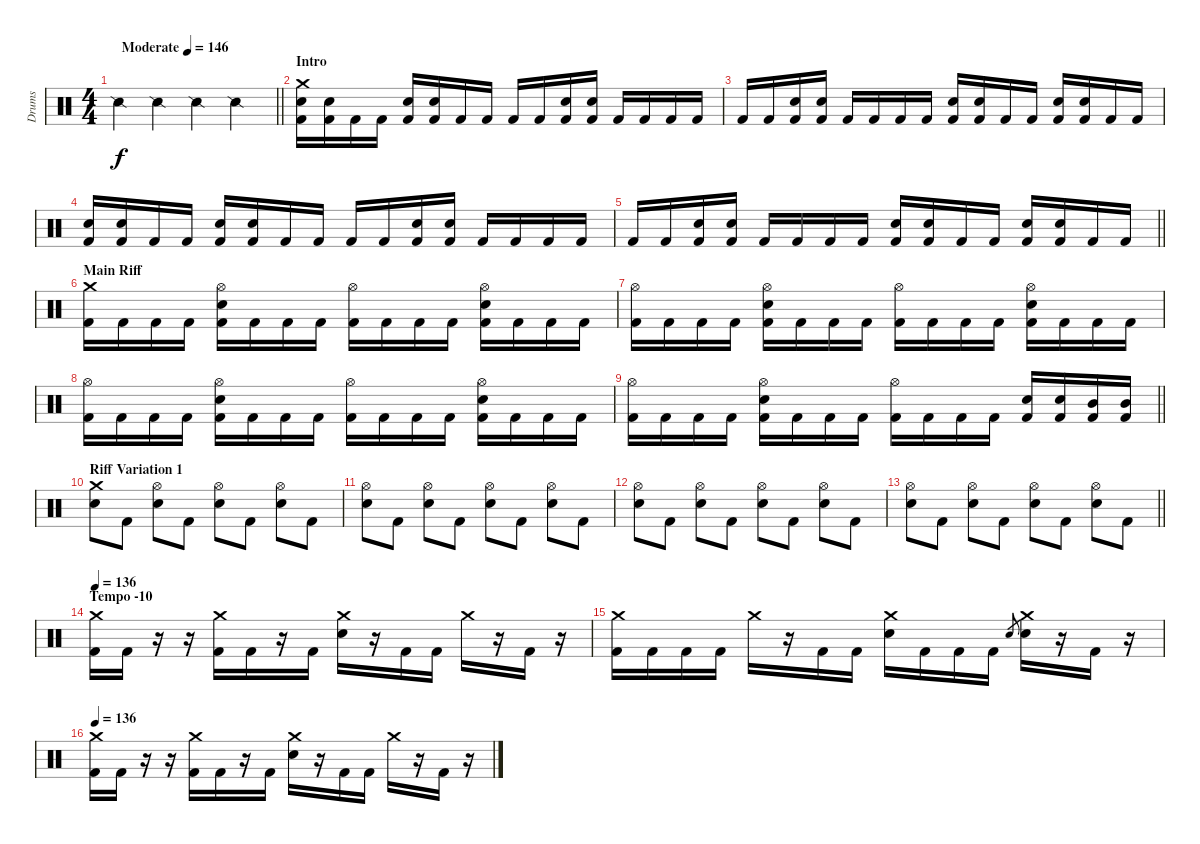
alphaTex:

\track ("Drums" "Drums") {instrument percussion}
\staff {score}
\articulation defaults
\ts (4 4)
\tempo (146 "Moderate")
\clef neutral
\barLineRight lightlight
\ks c "Snare (side stick) 2".4{dy f} "Snare (side stick) 2".4 "Snare (side stick) 2".4 "Snare (side stick) 2".4
|
\section ("" "Intro")
("Crash medium (hit)" "Electric Snare (hit)" "Kick (hit) 2").16 ("Electric Snare (hit)" "Kick (hit) 2").16 "Kick (hit) 2".16 "Kick (hit) 2".16 ("Electric Snare (hit)" "Kick (hit) 2").16 ("Electric Snare (hit)" "Kick (hit) 2").16 "Kick (hit) 2".16 "Kick (hit) 2".16 "Kick (hit) 2".16 "Kick (hit) 2".16 ("Electric Snare (hit)" "Kick (hit) 2").16 ("Electric Snare (hit)" "Kick (hit) 2").16 "Kick (hit) 2".16 "Kick (hit) 2".16 "Kick (hit) 2".16 "Kick (hit) 2".16 |
"Kick (hit) 2".16 "Kick (hit) 2".16 ("Electric Snare (hit)" "Kick (hit) 2").16 ("Electric Snare (hit)" "Kick (hit) 2").16 "Kick (hit) 2".16 "Kick (hit) 2".16 "Kick (hit) 2".16 "Kick (hit) 2".16 ("Electric Snare (hit)" "Kick (hit) 2").16 ("Electric Snare (hit)" "Kick (hit) 2").16 "Kick (hit) 2".16 "Kick (hit) 2".16 ("Electric Snare (hit)" "Kick (hit) 2").16 ("Electric Snare (hit)" "Kick (hit) 2").16 "Kick (hit) 2".16 "Kick (hit) 2".16 |
("Electric Snare (hit)" "Kick (hit) 2").16 ("Electric Snare (hit)" "Kick (hit) 2").16 "Kick (hit) 2".16 "Kick (hit) 2".16 ("Electric Snare (hit)" "Kick (hit) 2").16 ("Electric Snare (hit)" "Kick (hit) 2").16 "Kick (hit) 2".16 "Kick (hit) 2".16 "Kick (hit) 2".16 "Kick (hit) 2".16 ("Electric Snare (hit)" "Kick (hit) 2").16 ("Electric Snare (hit)" "Kick (hit) 2").16 "Kick (hit) 2".16 "Kick (hit) 2".16 "Kick (hit) 2".16 "Kick (hit) 2".16 |
\barLineRight lightlight "Kick (hit) 2".16 "Kick (hit) 2".16
("Electric Snare (hit)" "Kick (hit) 2").16 ("Electric Snare (hit)" "Kick (hit) 2").16 "Kick (hit) 2".16 "Kick (hit) 2".16 "Kick (hit) 2".16 "Kick (hit) 2".16 ("Electric Snare (hit)" "Kick (hit) 2").16 ("Electric Snare (hit)" "Kick (hit) 2").16 "Kick (hit) 2".16 "Kick (hit) 2".16 ("Electric Snare (hit)" "Kick (hit) 2").16 ("Electric Snare (hit)" "Kick (hit) 2").16 "Kick (hit) 2".16 "Kick (hit) 2".16 |
\section ("" "Main Riff")
("Crash medium (hit)" "Kick (hit) 2").16 "Kick (hit) 2".16 "Kick (hit) 2".16 "Kick (hit) 2".16 ("Hi-Hat (open)" "Electric Snare (hit)" "Kick (hit) 2").16 "Kick (hit) 2".16 "Kick (hit) 2".16 "Kick (hit) 2".16 ("Hi-Hat (open)" "Kick (hit) 2").16 "Kick (hit) 2".16 "Kick (hit) 2".16 "Kick (hit) 2".16 ("Hi-Hat (open)" "Electric Snare (hit)" "Kick (hit) 2").16 "Kick (hit) 2".16 "Kick (hit) 2".16 "Kick (hit) 2".16 |
("Hi-Hat (open)" "Kick (hit) 2").16 "Kick (hit) 2".16 "Kick (hit) 2".16 "Kick (hit) 2".16 ("Hi-Hat (open)" "Electric Snare (hit)" "Kick (hit) 2").16 "Kick (hit) 2".16 "Kick (hit) 2".16 "Kick (hit) 2".16 ("Hi-Hat (open)" "Kick (hit) 2").16 "Kick (hit) 2".16 "Kick (hit) 2".16 "Kick (hit) 2".16 ("Hi-Hat (open)" "Electric Snare (hit)" "Kick (hit) 2").16 "Kick (hit) 2".16 "Kick (hit) 2".16 "Kick (hit) 2".16 |
("Hi-Hat (open)" "Kick (hit) 2").16 "Kick (hit) 2".16 "Kick (hit) 2".16 "Kick (hit) 2".16 ("Hi-Hat (open)" "Electric Snare (hit)" "Kick (hit) 2").16 "Kick (hit) 2".16 "Kick (hit) 2".16 "Kick (hit) 2".16 ("Hi-Hat (open)" "Kick (hit) 2").16 "Kick (hit) 2".16 "Kick (hit) 2".16 "Kick (hit) 2".16 ("Hi-Hat (open)" "Electric Snare (hit)" "Kick (hit) 2").16 "Kick (hit) 2".16 "Kick (hit) 2".16 "Kick (hit) 2".16 |
\barLineRight lightlight
("Hi-Hat (open)" "Kick (hit) 2").16 "Kick (hit) 2".16 "Kick (hit) 2".16 "Kick (hit) 2".16 ("Hi-Hat (open)" "Electric Snare (hit)" "Kick (hit) 2").16 "Kick (hit) 2".16 "Kick (hit) 2".16 "Kick (hit) 2".16 ("Hi-Hat (open)" "Kick (hit) 2").16 "Kick (hit) 2".16 "Kick (hit) 2".16 "Kick (hit) 2".16 ("Electric Snare (hit)" "Kick (hit) 2").16 ("Electric Snare (hit)" "Kick (hit) 2").16 ("Mid Tom (hit)" "Kick (hit) 2").16 ("Mid Tom (hit)" "Kick (hit) 2").16 |
\section ("" "Riff Variation 1")
("Crash medium (hit)" "Electric Snare (hit)").8 "Kick (hit) 2".8 ("Hi-Hat (open)" "Electric Snare (hit)").8 "Kick (hit) 2".8 ("Hi-Hat (open)" "Electric Snare (hit)").8 "Kick (hit) 2".8 ("Hi-Hat (open)" "Electric Snare (hit)").8 "Kick (hit) 2".8 |
("Hi-Hat (open)" "Electric Snare (hit)").8 "Kick (hit) 2".8 ("Hi-Hat (open)" "Electric Snare (hit)").8 "Kick (hit) 2".8 ("Hi-Hat (open)" "Electric Snare (hit)").8 "Kick (hit) 2".8 ("Hi-Hat (open)" "Electric Snare (hit)").8 "Kick (hit) 2".8 |
("Hi-Hat (open)" "Electric Snare (hit)").8 "Kick (hit) 2".8 ("Hi-Hat (open)" "Electric Snare (hit)").8 "Kick (hit) 2".8 ("Hi-Hat (open)" "Electric Snare (hit)").8 "Kick (hit) 2".8 ("Hi-Hat (open)" "Electric Snare (hit)").8 "Kick (hit) 2".8 |
\barLineRight lightlight
("Hi-Hat (open)" "Electric Snare (hit)").8 "Kick (hit) 2".8 ("Hi-Hat (open)" "Electric Snare (hit)").8 "Kick (hit) 2".8 ("Hi-Hat (open)" "Electric Snare (hit)").8 "Kick (hit) 2".8 ("Hi-Hat (open)" "Electric Snare (hit)").8 "Kick (hit) 2".8 |
\section ("" "Tempo -10")
\tempo 136
("Crash medium (hit)" "Kick (hit) 2").16 "Kick (hit) 2".16 r.16 r.16 ("Crash medium (hit)" "Kick (hit) 2").16 "Kick (hit) 2".16 r.16 "Kick (hit) 2".16 ("Crash medium (hit)" "Electric Snare (hit)").16 r.16 "Kick (hit) 2".16 "Kick (hit) 2".16 "Crash medium (hit)".16 r.16 "Kick (hit) 2".16 r.16 |
("Crash medium (hit)" "Kick (hit) 2").16 "Kick (hit) 2".16 "Kick (hit) 2".16 "Kick (hit) 2".16 "Crash medium (hit)".16 r.16 "Kick (hit) 2".16 "Kick (hit) 2".16 ("Crash medium (hit)" "Electric Snare (hit)").16 "Kick (hit) 2".16 "Kick (hit) 2".16 "Kick (hit) 2".16 "Electric Snare (hit)".8{gr} ("Crash medium (hit)" "Electric Snare (hit)").16 r.16 "Kick (hit) 2".16 r.16 |
\tempo 136
("Crash medium (hit)" "Kick (hit) 2").16 "Kick (hit) 2".16 r.16 r.16 ("Crash medium (hit)" "Kick (hit) 2").16 "Kick (hit) 2".16 r.16 "Kick (hit) 2".16 ("Crash medium (hit)" "Electric Snare (hit)").16 r.16 "Kick (hit) 2".16 "Kick (hit) 2".16 "Crash medium (hit)".16 r.16 "Kick (hit) 2".16 r.16
